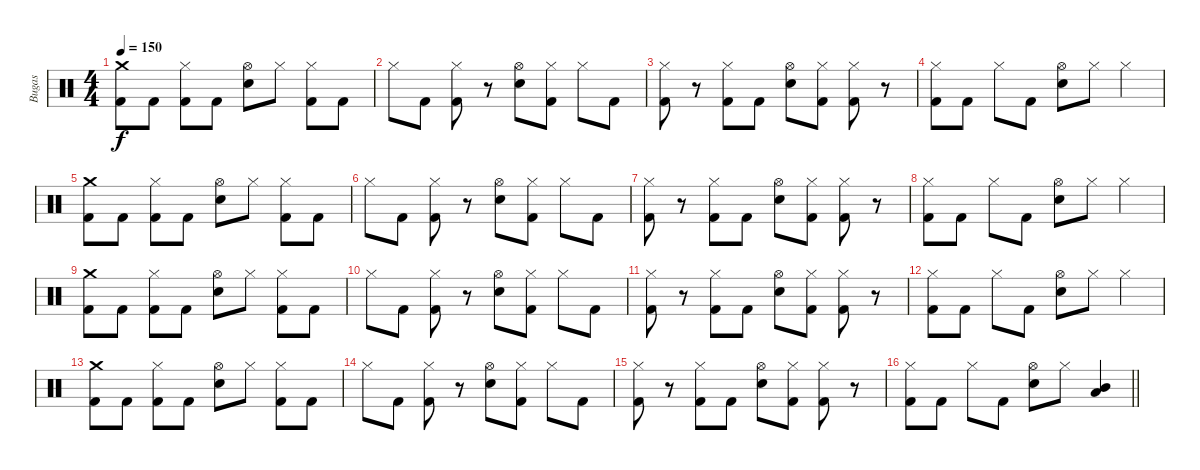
\track ("Bugas" "Bugas") {instrument percussion}
\staff {score}
\articulation defaults
\ts (4 4)
\tempo 150
\clef neutral
\ks c
("Crash medium (hit)" "Kick (hit) 2").8{dy f} "Kick (hit) 2".8 ("Hi-Hat (closed)" "Kick (hit) 2").8 "Kick (hit) 2".8 ("Hi-Hat (open)" "Electric Snare (hit)").8 "Hi-Hat (closed)".8 ("Hi-Hat (closed)" "Kick (hit) 2").8 "Kick (hit) 2".8 |
"Hi-Hat (closed)".8 "Kick (hit) 2".8 ("Hi-Hat (closed)" "Kick (hit) 2").8 r.8 ("Hi-Hat (open)" "Electric Snare (hit)").8 ("Hi-Hat (closed)" "Kick (hit) 2").8 "Hi-Hat (closed)".8 "Kick (hit) 2".8 |
("Hi-Hat (closed)" "Kick (hit) 2").8 r.8 ("Hi-Hat (closed)" "Kick (hit) 2").8 "Kick (hit) 2".8 ("Hi-Hat (open)" "Electric Snare (hit)").8 ("Hi-Hat (closed)" "Kick (hit) 2").8 ("Hi-Hat (closed)" "Kick (hit) 2").8 r.8 |
("Hi-Hat (closed)" "Kick (hit) 2").8 "Kick (hit) 2".8 "Hi-Hat (closed)".8 "Kick (hit) 2".8 ("Hi-Hat (open)" "Electric Snare (hit)").8 "Hi-Hat (closed)".8 "Hi-Hat (closed)".4 |
("Crash medium (hit)" "Kick (hit) 2").8 "Kick (hit) 2".8 ("Hi-Hat (closed)" "Kick (hit) 2").8 "Kick (hit) 2".8 ("Hi-Hat (open)" "Electric Snare (hit)").8 "Hi-Hat (closed)".8 ("Hi-Hat (closed)" "Kick (hit) 2").8 "Kick (hit) 2".8 |
"Hi-Hat (closed)".8 "Kick (hit) 2".8 ("Hi-Hat (closed)" "Kick (hit) 2").8 r.8 ("Hi-Hat (open)" "Electric Snare (hit)").8 ("Hi-Hat (closed)" "Kick (hit) 2").8 "Hi-Hat (closed)".8 "Kick (hit) 2".8 |
("Hi-Hat (closed)" "Kick (hit) 2").8 r.8 ("Hi-Hat (closed)" "Kick (hit) 2").8 "Kick (hit) 2".8 ("Hi-Hat (open)" "Electric Snare (hit)").8 ("Hi-Hat (closed)" "Kick (hit) 2").8 ("Hi-Hat (closed)" "Kick (hit) 2").8 r.8 |
("Hi-Hat (closed)" "Kick (hit) 2").8 "Kick (hit) 2".8 "Hi-Hat (closed)".8 "Kick (hit) 2".8 ("Hi-Hat (open)" "Electric Snare (hit)").8 "Hi-Hat (closed)".8 "Hi-Hat (closed)".4 |
("Crash medium (hit)" "Kick (hit) 2").8 "Kick (hit) 2".8 ("Hi-Hat (closed)" "Kick (hit) 2").8 "Kick (hit) 2".8 ("Hi-Hat (open)" "Electric Snare (hit)").8 "Hi-Hat (closed)".8 ("Hi-Hat (closed)" "Kick (hit) 2").8 "Kick (hit) 2".8 |
"Hi-Hat (closed)".8 "Kick (hit) 2".8 ("Hi-Hat (closed)" "Kick (hit) 2").8 r.8 ("Hi-Hat (open)" "Electric Snare (hit)").8 ("Hi-Hat (closed)" "Kick (hit) 2").8 "Hi-Hat (closed)".8 "Kick (hit) 2".8 |
("Hi-Hat (closed)" "Kick (hit) 2").8 r.8 ("Hi-Hat (closed)" "Kick (hit) 2").8 "Kick (hit) 2".8 ("Hi-Hat (open)" "Electric Snare (hit)").8 ("Hi-Hat (closed)" "Kick (hit) 2").8 ("Hi-Hat (closed)" "Kick (hit) 2").8 r.8 |
("Hi-Hat (closed)" "Kick (hit) 2").8 "Kick (hit) 2".8 "Hi-Hat (closed)".8 "Kick (hit) 2".8 ("Hi-Hat (open)" "Electric Snare (hit)").8 "Hi-Hat (closed)".8 "Hi-Hat (closed)".4 |
("Crash medium (hit)" "Kick (hit) 2").8 "Kick (hit) 2".8 ("Hi-Hat (closed)" "Kick (hit) 2").8 "Kick (hit) 2".8 ("Hi-Hat (open)" "Electric Snare (hit)").8 "Hi-Hat (closed)".8 ("Hi-Hat (closed)" "Kick (hit) 2").8 "Kick (hit) 2".8 |
"Hi-Hat (closed)".8 "Kick (hit) 2".8 ("Hi-Hat (closed)" "Kick (hit) 2").8 r.8 ("Hi-Hat (open)" "Electric Snare (hit)").8 ("Hi-Hat (closed)" "Kick (hit) 2").8 "Hi-Hat (closed)".8 "Kick (hit) 2".8 |
("Hi-Hat (closed)" "Kick (hit) 2").8 r.8 ("Hi-Hat (closed)" "Kick (hit) 2").8 "Kick (hit) 2".8 ("Hi-Hat (open)" "Electric Snare (hit)").8 ("Hi-Hat (closed)" "Kick (hit) 2").8 ("Hi-Hat (closed)" "Kick (hit) 2").8 r.8 |
\barLineRight lightlight
("Hi-Hat (closed)" "Kick (hit) 2").8 "Kick (hit) 2".8 "Hi-Hat (closed)".8 "Kick (hit) 2".8 ("Hi-Hat (open)" "Electric Snare (hit)").8 "Hi-Hat (closed)".8 ("Mid Tom (hit)" "Low Tom (hit)").4
